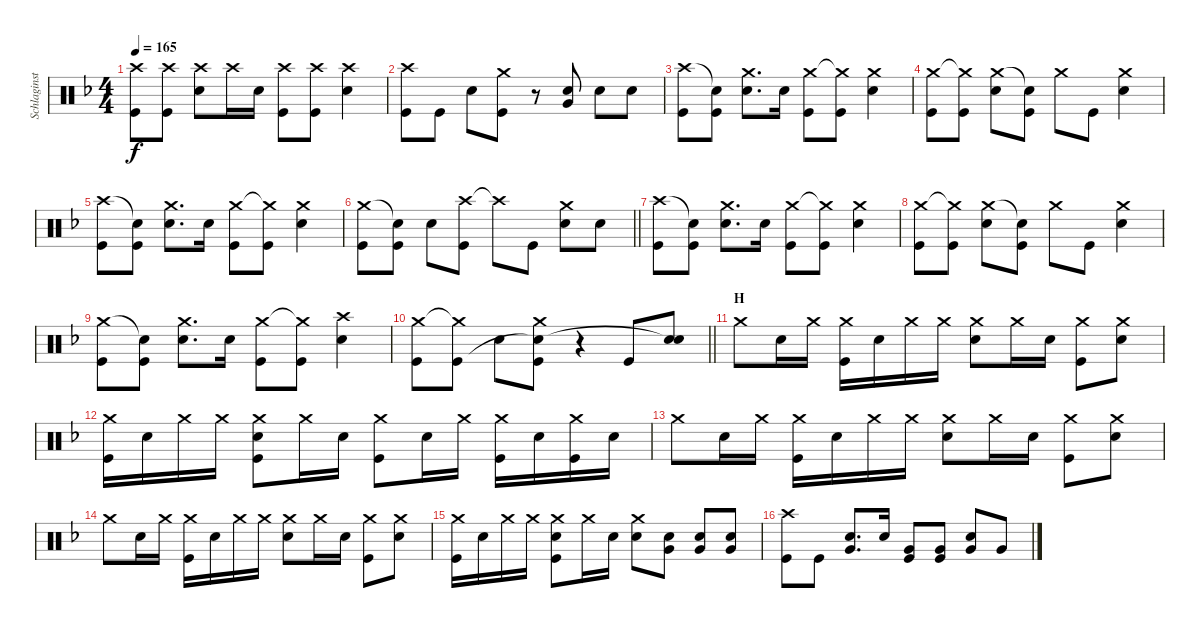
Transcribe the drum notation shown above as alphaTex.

\track ("Schlaginstrumente - Auswahl" "Schlaginst") {instrument percussion}
\staff {score}
\articulation defaults
\ts (4 4)
\tempo 165
\clef neutral
\ks f
("Crash high (hit)" "Kick (hit)").8{dy f} ("Crash high (hit)" "Kick (hit)").8 ("Crash high (hit)" "Snare (hit) 2").8 "Crash high (hit)".16 "Snare (hit) 2".16 ("Crash high (hit)" "Kick (hit)").8 ("Crash high (hit)" "Kick (hit)").8 ("Crash high (hit)" "Snare (hit) 2").4 |
("Crash high (hit)" "Kick (hit)").8 "Kick (hit)".8 "Snare (hit) 2".8 ("Crash medium (hit)" "Kick (hit)").8 r.8 ("Very Low Tom (hit)" "Snare (hit) 2").8 "Snare (hit) 2".8 "Snare (hit) 2".8 |
("Crash high (hit)" "Kick (hit)").8 ("Snare (hit)"{t} "Kick (hit)").8 ("Crash medium (hit)" "Snare (hit) 2").8{d} "Snare (hit) 2".16 ("Crash medium (hit)" "Kick (hit)").8 ("Crash medium (hit)"{t} "Kick (hit)").8 ("Crash medium (hit)" "Snare (hit) 2").4 |
("Crash medium (hit)" "Kick (hit)").8 ("Crash medium (hit)"{t} "Kick (hit)").8 ("Crash medium (hit)" "Snare (hit) 2").8 ("Snare (hit) 2"{t} "Kick (hit)").8 "Crash medium (hit)".8 "Kick (hit)".8 ("Crash medium (hit)" "Snare (hit) 2").4 |
("Crash high (hit)" "Kick (hit)").8 ("Snare (hit)"{t} "Kick (hit)").8 ("Crash medium (hit)" "Snare (hit) 2").8{d} "Snare (hit) 2".16 ("Crash medium (hit)" "Kick (hit)").8 ("Crash medium (hit)"{t} "Kick (hit)").8 ("Crash medium (hit)" "Snare (hit) 2").4 |
\barLineRight lightlight
("Crash medium (hit)" "Kick (hit)").8 ("Snare (hit)"{t} "Kick (hit)").8 "Snare (hit) 2".8 ("Crash high (hit)" "Kick (hit)").8 "Crash high (hit)"{t}.8 "Kick (hit)".8 ("Crash medium (hit)" "Snare (hit) 2").8 "Snare (hit) 2".8 |
("Crash high (hit)" "Kick (hit)").8 ("Snare (hit)"{t} "Kick (hit)").8 ("Crash medium (hit)" "Snare (hit) 2").8{d} "Snare (hit) 2".16 ("Crash medium (hit)" "Kick (hit)").8 ("Crash medium (hit)"{t} "Kick (hit)").8 ("Crash medium (hit)" "Snare (hit) 2").4 |
("Crash medium (hit)" "Kick (hit)").8 ("Crash medium (hit)"{t} "Kick (hit)").8 ("Crash medium (hit)" "Snare (hit) 2").8 ("Snare (hit) 2"{t} "Kick (hit)").8 "Crash medium (hit)".8 "Kick (hit)".8 ("Crash medium (hit)" "Snare (hit) 2").4 |
("Crash medium (hit)" "Kick (hit)").8 ("Snare (hit)"{t} "Kick (hit)").8 ("Crash medium (hit)" "Snare (hit) 2").8{d} "Snare (hit) 2".16 ("Crash medium (hit)" "Kick (hit)").8 ("Crash medium (hit)"{t} "Kick (hit)").8 ("Crash high (hit)" "Snare (hit) 2").4 |
\barLineRight lightlight
("Crash medium (hit)" "Kick (hit)").8 ("Crash medium (hit)"{t} "Kick (hit)").8 "Snare (hit) 2".8 ("Crash medium (hit)" "Snare (hit) 2"{t} "Kick (hit)").8 r.4 "Kick (hit)".8 ("Snare (hit) 2" "Snare (hit)"{t}).8 |
\section ("" "H")
"Crash medium (hit)".8 "Snare (hit) 2".16 "Crash medium (hit)".16 ("Crash medium (hit)" "Kick (hit)").16 "Snare (hit) 2".16 "Crash medium (hit)".16 "Crash medium (hit)".16 ("Crash medium (hit)" "Snare (hit) 2").8 "Crash medium (hit)".16 "Snare (hit) 2".16 ("Crash medium (hit)" "Kick (hit)").8 ("Crash medium (hit)" "Snare (hit) 2").8 |
("Crash medium (hit)" "Kick (hit)").16 "Snare (hit) 2".16 "Crash medium (hit)".16 "Crash medium (hit)".16 ("Crash medium (hit)" "Snare (hit) 2" "Kick (hit)").8 "Crash medium (hit)".16 "Snare (hit) 2".16 ("Crash medium (hit)" "Kick (hit)").8 "Snare (hit) 2".16 "Crash medium (hit)".16 ("Crash medium (hit)" "Kick (hit)").16 "Snare (hit) 2".16 ("Crash medium (hit)" "Kick (hit)").16 "Snare (hit) 2".16 |
"Crash medium (hit)".8 "Snare (hit) 2".16 "Crash medium (hit)".16 ("Crash medium (hit)" "Kick (hit)").16 "Snare (hit) 2".16 "Crash medium (hit)".16 "Crash medium (hit)".16 ("Crash medium (hit)" "Snare (hit) 2").8 "Crash medium (hit)".16 "Snare (hit) 2".16 ("Crash medium (hit)" "Kick (hit)").8 ("Crash medium (hit)" "Snare (hit) 2").8 |
"Crash medium (hit)".8 "Snare (hit) 2".16 "Crash medium (hit)".16 ("Crash medium (hit)" "Kick (hit)").16 "Snare (hit) 2".16 "Crash medium (hit)".16 "Crash medium (hit)".16 ("Crash medium (hit)" "Snare (hit) 2").8 "Crash medium (hit)".16 "Snare (hit) 2".16 ("Crash medium (hit)" "Kick (hit)").8 ("Crash medium (hit)" "Snare (hit) 2").8 |
("Crash medium (hit)" "Kick (hit)").16 "Snare (hit) 2".16 "Crash medium (hit)".16 "Crash medium (hit)".16 ("Crash medium (hit)" "Snare (hit) 2" "Kick (hit)").8 "Crash medium (hit)".16 "Snare (hit) 2".16 ("Crash medium (hit)" "Snare (hit) 2").8 ("Very Low Tom (hit)" "Snare (hit) 2").8 ("Very Low Tom (hit)" "Snare (hit) 2").8 ("Very Low Tom (hit)" "Snare (hit) 2").8 |
("Crash high (hit)" "Kick (hit)").8 "Kick (hit)".8 ("Very Low Tom (hit)" "Snare (hit) 2").8{d} "Snare (hit) 2".16 ("Very Low Tom (hit)" "Kick (hit)").8 ("Very Low Tom (hit)" "Kick (hit)").8 ("Very Low Tom (hit)" "Snare (hit) 2").8 "Very Low Tom (hit)".8
